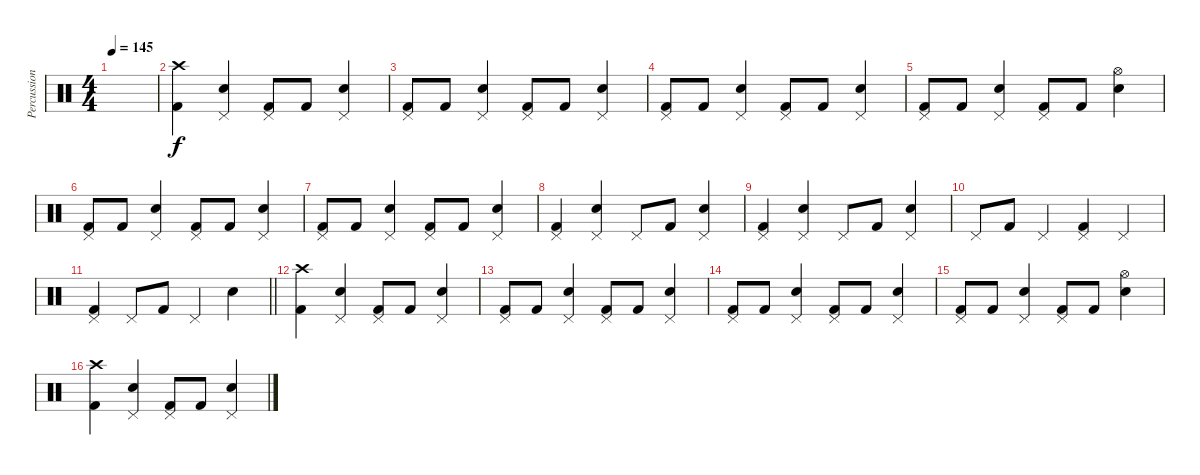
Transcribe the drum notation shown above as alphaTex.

\track ("Percussion" "Percussion") {instrument percussion}
\staff {score}
\articulation defaults
\ts (4 4)
\section ("" "")
\tempo 145
\clef neutral
\ks c
|
("Crash high (hit)" "Kick (hit) 2").4 ("Pedal Hi-Hat (hit)" "Snare (hit) 2").4 ("Pedal Hi-Hat (hit)" "Kick (hit) 2").8 "Kick (hit) 2".8 ("Pedal Hi-Hat (hit)" "Snare (hit) 2").4 |
("Pedal Hi-Hat (hit)" "Kick (hit) 2").8 "Kick (hit) 2".8 ("Pedal Hi-Hat (hit)" "Snare (hit) 2").4 ("Pedal Hi-Hat (hit)" "Kick (hit) 2").8 "Kick (hit) 2".8 ("Pedal Hi-Hat (hit)" "Snare (hit) 2").4 |
("Pedal Hi-Hat (hit)" "Kick (hit) 2").8 "Kick (hit) 2".8 ("Pedal Hi-Hat (hit)" "Snare (hit) 2").4 ("Pedal Hi-Hat (hit)" "Kick (hit) 2").8 "Kick (hit) 2".8 ("Pedal Hi-Hat (hit)" "Snare (hit) 2").4 |
("Pedal Hi-Hat (hit)" "Kick (hit) 2").8 "Kick (hit) 2".8 ("Pedal Hi-Hat (hit)" "Snare (hit) 2").4 ("Pedal Hi-Hat (hit)" "Kick (hit) 2").8 "Kick (hit) 2".8 ("Hi-Hat (open)" "Snare (hit) 2").4 |
("Pedal Hi-Hat (hit)" "Kick (hit) 2").8 "Kick (hit) 2".8 ("Pedal Hi-Hat (hit)" "Snare (hit) 2").4 ("Pedal Hi-Hat (hit)" "Kick (hit) 2").8 "Kick (hit) 2".8 ("Pedal Hi-Hat (hit)" "Snare (hit) 2").4 |
("Pedal Hi-Hat (hit)" "Kick (hit) 2").8 "Kick (hit) 2".8 ("Pedal Hi-Hat (hit)" "Snare (hit) 2").4 ("Pedal Hi-Hat (hit)" "Kick (hit) 2").8 "Kick (hit) 2".8 ("Pedal Hi-Hat (hit)" "Snare (hit) 2").4 |
("Pedal Hi-Hat (hit)" "Kick (hit) 2").4 ("Pedal Hi-Hat (hit)" "Snare (hit) 2").4 "Pedal Hi-Hat (hit)".8 "Kick (hit) 2".8 ("Pedal Hi-Hat (hit)" "Snare (hit) 2").4 |
("Pedal Hi-Hat (hit)" "Kick (hit) 2").4 ("Pedal Hi-Hat (hit)" "Snare (hit) 2").4 "Pedal Hi-Hat (hit)".8 "Kick (hit) 2".8 ("Pedal Hi-Hat (hit)" "Snare (hit) 2").4 |
"Pedal Hi-Hat (hit)".8 "Kick (hit) 2".8 "Pedal Hi-Hat (hit)".4 ("Pedal Hi-Hat (hit)" "Kick (hit) 2").4 "Pedal Hi-Hat (hit)".4 |
\barLineRight lightlight
("Pedal Hi-Hat (hit)" "Kick (hit) 2").4 "Pedal Hi-Hat (hit)".8 "Kick (hit) 2".8 "Pedal Hi-Hat (hit)".4 "Snare (hit) 2".4 |
\section ("" "")
("Crash high (hit)" "Kick (hit) 2").4 ("Pedal Hi-Hat (hit)" "Snare (hit) 2").4 ("Pedal Hi-Hat (hit)" "Kick (hit) 2").8 "Kick (hit) 2".8 ("Pedal Hi-Hat (hit)" "Snare (hit) 2").4 |
("Pedal Hi-Hat (hit)" "Kick (hit) 2").8 "Kick (hit) 2".8 ("Pedal Hi-Hat (hit)" "Snare (hit) 2").4 ("Pedal Hi-Hat (hit)" "Kick (hit) 2").8 "Kick (hit) 2".8 ("Pedal Hi-Hat (hit)" "Snare (hit) 2").4 |
("Pedal Hi-Hat (hit)" "Kick (hit) 2").8 "Kick (hit) 2".8 ("Pedal Hi-Hat (hit)" "Snare (hit) 2").4 ("Pedal Hi-Hat (hit)" "Kick (hit) 2").8 "Kick (hit) 2".8 ("Pedal Hi-Hat (hit)" "Snare (hit) 2").4 |
("Pedal Hi-Hat (hit)" "Kick (hit) 2").8 "Kick (hit) 2".8 ("Pedal Hi-Hat (hit)" "Snare (hit) 2").4 ("Pedal Hi-Hat (hit)" "Kick (hit) 2").8 "Kick (hit) 2".8 ("Hi-Hat (open)" "Snare (hit) 2").4 |
("Crash high (hit)" "Kick (hit) 2").4 ("Pedal Hi-Hat (hit)" "Snare (hit) 2").4 ("Pedal Hi-Hat (hit)" "Kick (hit) 2").8 "Kick (hit) 2".8 ("Pedal Hi-Hat (hit)" "Snare (hit) 2").4
